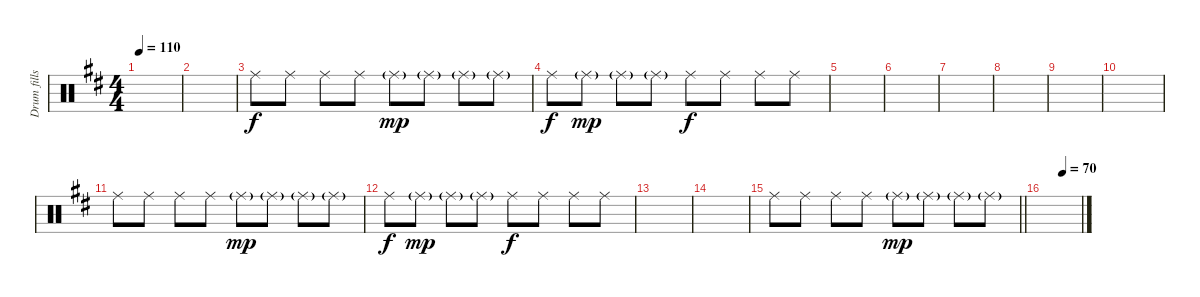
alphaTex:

\track ("Drum fills" "Drum fills") {instrument percussion}
\staff {score}
\articulation defaults
\ts (4 4)
\tempo 110
\clef neutral
\ks d
|
|
"Ride (middle)".8 "Ride (middle)".8 "Ride (middle)".8 "Ride (middle)".8 "Ride (middle)"{g}.8{dy mp} "Ride (middle)"{g}.8 "Ride (middle)"{g}.8 "Ride (middle)"{g}.8 |
"Ride (middle)".8{dy f} "Ride (middle)"{g}.8{dy mp} "Ride (middle)"{g}.8 "Ride (middle)"{g}.8 "Ride (middle)".8{dy f} "Ride (middle)".8 "Ride (middle)".8 "Ride (middle)".8 |
|
|
|
|
|
|
"Ride (middle)".8 "Ride (middle)".8 "Ride (middle)".8 "Ride (middle)".8 "Ride (middle)"{g}.8{dy mp} "Ride (middle)"{g}.8 "Ride (middle)"{g}.8 "Ride (middle)"{g}.8 |
"Ride (middle)".8{dy f} "Ride (middle)"{g}.8{dy mp} "Ride (middle)"{g}.8 "Ride (middle)"{g}.8 "Ride (middle)".8{dy f} "Ride (middle)".8 "Ride (middle)".8 "Ride (middle)".8 |
|
|
\barLineRight lightlight "Ride (middle)".8 "Ride (middle)".8 "Ride (middle)".8 "Ride (middle)".8 "Ride (middle)"{g}.8{dy mp} "Ride (middle)"{g}.8 "Ride (middle)"{g}.8 "Ride (middle)"{g}.8
|
\tempo (70 0.5)
